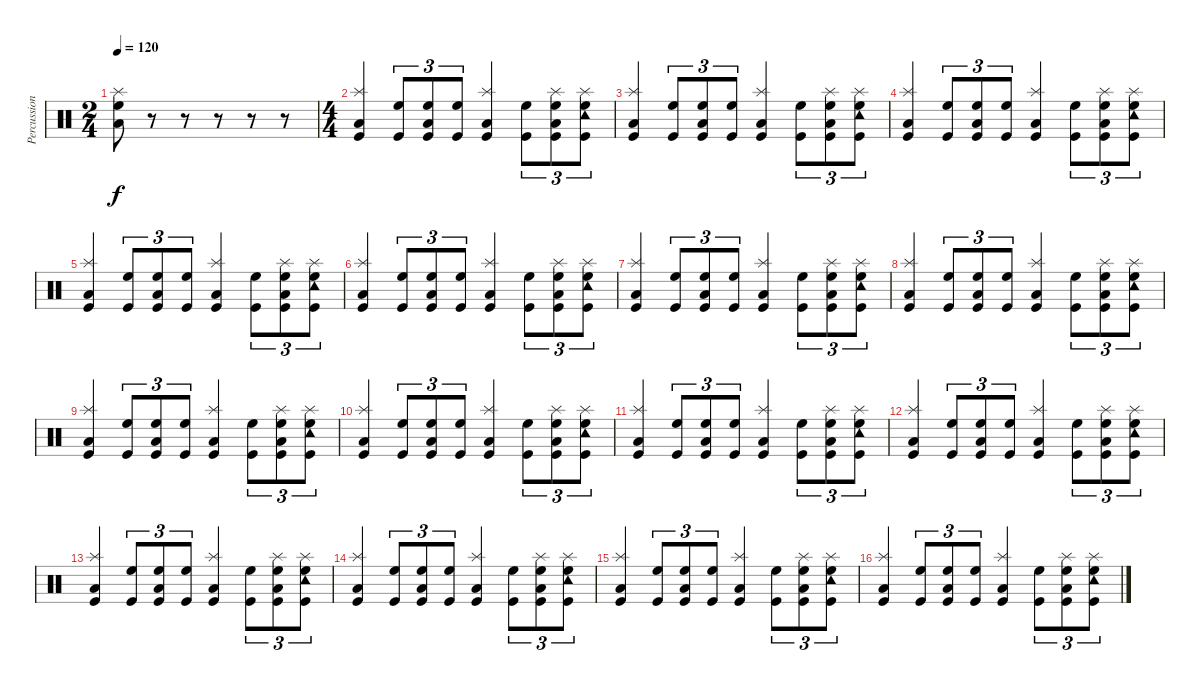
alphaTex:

\track ("Percussion" "Percussion") {instrument percussion}
\staff {score}
\articulation defaults
\ts (2 4)
\tempo 120
\clef neutral
\ks c
("Low Tom (hit)" "Splash (hit)" "High Floor Tom (hit)").8{dy f} r.8 r.8 r.8 r.8 r.8 |
\ts (4 4)
("Low Tom (hit)" "Splash (hit)" "Kick (hit)").4 ("High Floor Tom (hit)" "Kick (hit)").8{tu (3 2)} ("Low Tom (hit)" "High Floor Tom (hit)" "Kick (hit)").8{tu (3 2)} ("High Floor Tom (hit)" "Kick (hit)").8{tu (3 2)} ("Splash (hit)" "Low Tom (hit)" "Kick (hit)").4 ("High Floor Tom (hit)" "Kick (hit)").8{tu (3 2)} ("Splash (hit)" "Low Tom (hit)" "High Floor Tom (hit)" "Kick (hit)").8{tu (3 2)} ("Tambourine (hit)" "High Floor Tom (hit)" "Splash (hit)" "Kick (hit)").8{tu (3 2)} |
("Low Tom (hit)" "Splash (hit)" "Kick (hit)").4 ("High Floor Tom (hit)" "Kick (hit)").8{tu (3 2)} ("Low Tom (hit)" "High Floor Tom (hit)" "Kick (hit)").8{tu (3 2)} ("High Floor Tom (hit)" "Kick (hit)").8{tu (3 2)} ("Splash (hit)" "Low Tom (hit)" "Kick (hit)").4 ("High Floor Tom (hit)" "Kick (hit)").8{tu (3 2)} ("Splash (hit)" "Low Tom (hit)" "High Floor Tom (hit)" "Kick (hit)").8{tu (3 2)} ("Tambourine (hit)" "High Floor Tom (hit)" "Splash (hit)" "Kick (hit)").8{tu (3 2)} |
("Low Tom (hit)" "Splash (hit)" "Kick (hit)").4 ("High Floor Tom (hit)" "Kick (hit)").8{tu (3 2)} ("Low Tom (hit)" "High Floor Tom (hit)" "Kick (hit)").8{tu (3 2)} ("High Floor Tom (hit)" "Kick (hit)").8{tu (3 2)} ("Splash (hit)" "Low Tom (hit)" "Kick (hit)").4 ("High Floor Tom (hit)" "Kick (hit)").8{tu (3 2)} ("Splash (hit)" "Low Tom (hit)" "High Floor Tom (hit)" "Kick (hit)").8{tu (3 2)} ("Tambourine (hit)" "High Floor Tom (hit)" "Splash (hit)" "Kick (hit)").8{tu (3 2)} |
("Low Tom (hit)" "Splash (hit)" "Kick (hit)").4 ("High Floor Tom (hit)" "Kick (hit)").8{tu (3 2)} ("Low Tom (hit)" "High Floor Tom (hit)" "Kick (hit)").8{tu (3 2)} ("High Floor Tom (hit)" "Kick (hit)").8{tu (3 2)} ("Splash (hit)" "Low Tom (hit)" "Kick (hit)").4 ("High Floor Tom (hit)" "Kick (hit)").8{tu (3 2)} ("Splash (hit)" "Low Tom (hit)" "High Floor Tom (hit)" "Kick (hit)").8{tu (3 2)} ("Tambourine (hit)" "High Floor Tom (hit)" "Splash (hit)" "Kick (hit)").8{tu (3 2)} |
("Low Tom (hit)" "Splash (hit)" "Kick (hit)").4 ("High Floor Tom (hit)" "Kick (hit)").8{tu (3 2)} ("Low Tom (hit)" "High Floor Tom (hit)" "Kick (hit)").8{tu (3 2)} ("High Floor Tom (hit)" "Kick (hit)").8{tu (3 2)} ("Splash (hit)" "Low Tom (hit)" "Kick (hit)").4 ("High Floor Tom (hit)" "Kick (hit)").8{tu (3 2)} ("Splash (hit)" "Low Tom (hit)" "High Floor Tom (hit)" "Kick (hit)").8{tu (3 2)} ("Tambourine (hit)" "High Floor Tom (hit)" "Splash (hit)" "Kick (hit)").8{tu (3 2)} |
("Low Tom (hit)" "Splash (hit)" "Kick (hit)").4 ("High Floor Tom (hit)" "Kick (hit)").8{tu (3 2)} ("Low Tom (hit)" "High Floor Tom (hit)" "Kick (hit)").8{tu (3 2)} ("High Floor Tom (hit)" "Kick (hit)").8{tu (3 2)} ("Splash (hit)" "Low Tom (hit)" "Kick (hit)").4 ("High Floor Tom (hit)" "Kick (hit)").8{tu (3 2)} ("Splash (hit)" "Low Tom (hit)" "High Floor Tom (hit)" "Kick (hit)").8{tu (3 2)} ("Tambourine (hit)" "High Floor Tom (hit)" "Splash (hit)" "Kick (hit)").8{tu (3 2)} |
("Low Tom (hit)" "Splash (hit)" "Kick (hit)").4 ("High Floor Tom (hit)" "Kick (hit)").8{tu (3 2)} ("Low Tom (hit)" "High Floor Tom (hit)" "Kick (hit)").8{tu (3 2)} ("High Floor Tom (hit)" "Kick (hit)").8{tu (3 2)} ("Splash (hit)" "Low Tom (hit)" "Kick (hit)").4 ("High Floor Tom (hit)" "Kick (hit)").8{tu (3 2)} ("Splash (hit)" "Low Tom (hit)" "High Floor Tom (hit)" "Kick (hit)").8{tu (3 2)} ("Tambourine (hit)" "High Floor Tom (hit)" "Splash (hit)" "Kick (hit)").8{tu (3 2)} |
("Low Tom (hit)" "Splash (hit)" "Kick (hit)").4 ("High Floor Tom (hit)" "Kick (hit)").8{tu (3 2)} ("Low Tom (hit)" "High Floor Tom (hit)" "Kick (hit)").8{tu (3 2)} ("High Floor Tom (hit)" "Kick (hit)").8{tu (3 2)} ("Splash (hit)" "Low Tom (hit)" "Kick (hit)").4 ("High Floor Tom (hit)" "Kick (hit)").8{tu (3 2)} ("Splash (hit)" "Low Tom (hit)" "High Floor Tom (hit)" "Kick (hit)").8{tu (3 2)} ("Tambourine (hit)" "High Floor Tom (hit)" "Splash (hit)" "Kick (hit)").8{tu (3 2)} |
("Low Tom (hit)" "Splash (hit)" "Kick (hit)").4 ("High Floor Tom (hit)" "Kick (hit)").8{tu (3 2)} ("Low Tom (hit)" "High Floor Tom (hit)" "Kick (hit)").8{tu (3 2)} ("High Floor Tom (hit)" "Kick (hit)").8{tu (3 2)} ("Splash (hit)" "Low Tom (hit)" "Kick (hit)").4 ("High Floor Tom (hit)" "Kick (hit)").8{tu (3 2)} ("Splash (hit)" "Low Tom (hit)" "High Floor Tom (hit)" "Kick (hit)").8{tu (3 2)} ("Tambourine (hit)" "High Floor Tom (hit)" "Splash (hit)" "Kick (hit)").8{tu (3 2)} |
("Low Tom (hit)" "Splash (hit)" "Kick (hit)").4 ("High Floor Tom (hit)" "Kick (hit)").8{tu (3 2)} ("Low Tom (hit)" "High Floor Tom (hit)" "Kick (hit)").8{tu (3 2)} ("High Floor Tom (hit)" "Kick (hit)").8{tu (3 2)} ("Splash (hit)" "Low Tom (hit)" "Kick (hit)").4 ("High Floor Tom (hit)" "Kick (hit)").8{tu (3 2)} ("Splash (hit)" "Low Tom (hit)" "High Floor Tom (hit)" "Kick (hit)").8{tu (3 2)} ("Tambourine (hit)" "High Floor Tom (hit)" "Splash (hit)" "Kick (hit)").8{tu (3 2)} |
("Low Tom (hit)" "Splash (hit)" "Kick (hit)").4 ("High Floor Tom (hit)" "Kick (hit)").8{tu (3 2)} ("Low Tom (hit)" "High Floor Tom (hit)" "Kick (hit)").8{tu (3 2)} ("High Floor Tom (hit)" "Kick (hit)").8{tu (3 2)} ("Splash (hit)" "Low Tom (hit)" "Kick (hit)").4 ("High Floor Tom (hit)" "Kick (hit)").8{tu (3 2)} ("Splash (hit)" "Low Tom (hit)" "High Floor Tom (hit)" "Kick (hit)").8{tu (3 2)} ("Tambourine (hit)" "High Floor Tom (hit)" "Splash (hit)" "Kick (hit)").8{tu (3 2)} |
("Low Tom (hit)" "Splash (hit)" "Kick (hit)").4 ("High Floor Tom (hit)" "Kick (hit)").8{tu (3 2)} ("Low Tom (hit)" "High Floor Tom (hit)" "Kick (hit)").8{tu (3 2)} ("High Floor Tom (hit)" "Kick (hit)").8{tu (3 2)} ("Splash (hit)" "Low Tom (hit)" "Kick (hit)").4 ("High Floor Tom (hit)" "Kick (hit)").8{tu (3 2)} ("Splash (hit)" "Low Tom (hit)" "High Floor Tom (hit)" "Kick (hit)").8{tu (3 2)} ("Tambourine (hit)" "High Floor Tom (hit)" "Splash (hit)" "Kick (hit)").8{tu (3 2)} |
("Low Tom (hit)" "Splash (hit)" "Kick (hit)").4 ("High Floor Tom (hit)" "Kick (hit)").8{tu (3 2)} ("Low Tom (hit)" "High Floor Tom (hit)" "Kick (hit)").8{tu (3 2)} ("High Floor Tom (hit)" "Kick (hit)").8{tu (3 2)} ("Splash (hit)" "Low Tom (hit)" "Kick (hit)").4 ("High Floor Tom (hit)" "Kick (hit)").8{tu (3 2)} ("Splash (hit)" "Low Tom (hit)" "High Floor Tom (hit)" "Kick (hit)").8{tu (3 2)} ("Tambourine (hit)" "High Floor Tom (hit)" "Splash (hit)" "Kick (hit)").8{tu (3 2)} |
("Low Tom (hit)" "Splash (hit)" "Kick (hit)").4 ("High Floor Tom (hit)" "Kick (hit)").8{tu (3 2)} ("Low Tom (hit)" "High Floor Tom (hit)" "Kick (hit)").8{tu (3 2)} ("High Floor Tom (hit)" "Kick (hit)").8{tu (3 2)} ("Splash (hit)" "Low Tom (hit)" "Kick (hit)").4 ("High Floor Tom (hit)" "Kick (hit)").8{tu (3 2)} ("Splash (hit)" "Low Tom (hit)" "High Floor Tom (hit)" "Kick (hit)").8{tu (3 2)} ("Tambourine (hit)" "High Floor Tom (hit)" "Splash (hit)" "Kick (hit)").8{tu (3 2)} |
("Low Tom (hit)" "Splash (hit)" "Kick (hit)").4 ("High Floor Tom (hit)" "Kick (hit)").8{tu (3 2)} ("Low Tom (hit)" "High Floor Tom (hit)" "Kick (hit)").8{tu (3 2)} ("High Floor Tom (hit)" "Kick (hit)").8{tu (3 2)} ("Splash (hit)" "Low Tom (hit)" "Kick (hit)").4 ("High Floor Tom (hit)" "Kick (hit)").8{tu (3 2)} ("Splash (hit)" "Low Tom (hit)" "High Floor Tom (hit)" "Kick (hit)").8{tu (3 2)} ("Tambourine (hit)" "High Floor Tom (hit)" "Splash (hit)" "Kick (hit)").8{tu (3 2)}
